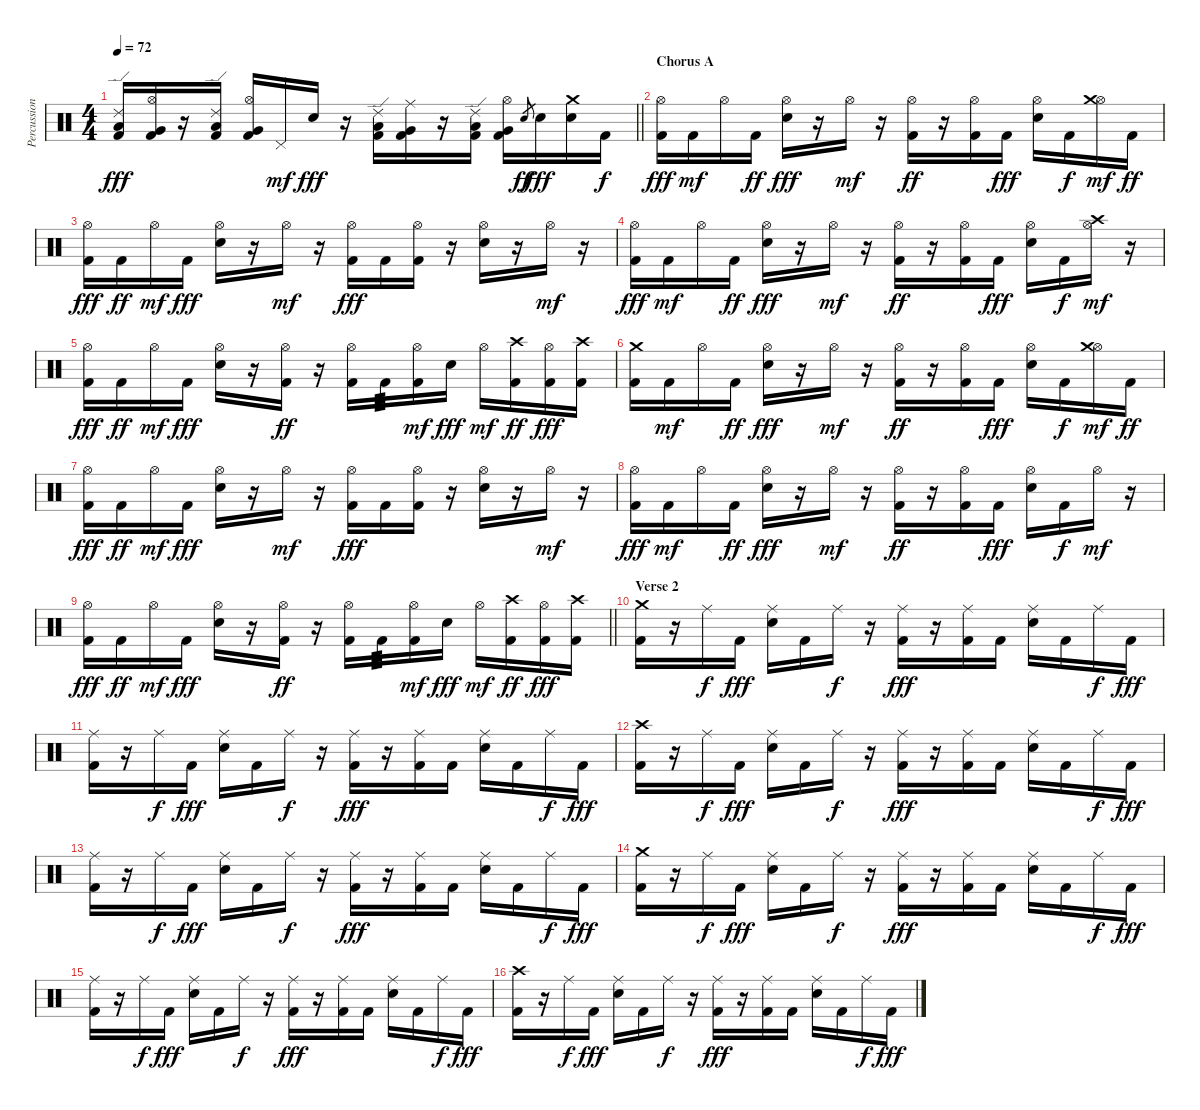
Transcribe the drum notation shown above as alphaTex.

\track ("Percussion" "Percussion") {instrument percussion}
\staff {score}
\articulation defaults
\ts (4 4)
\tempo 72
\clef neutral
\barLineRight lightlight
\ks c
("Ride (edge) 2" "Low Tom (hit)" "Kick (hit) 2").16{dy fff} ("Hi-Hat (open)" "Very Low Tom (hit)" "Kick (hit) 2").16 r.16 ("Ride (edge) 2" "Low Tom (hit)" "Kick (hit) 2").16 ("Hi-Hat (open)" "Very Low Tom (hit)" "Kick (hit) 2").16 "Pedal Hi-Hat (hit)".16{dy mf} "Electric Snare (hit)".16{dy fff} r.16 ("Ride (edge) 2" "Low Tom (hit)" "Kick (hit) 2").16 ("Ride (middle)" "Very Low Tom (hit)" "Kick (hit) 2").16 r.16 ("Ride (edge) 2" "Low Tom (hit)" "Kick (hit) 2").16 ("Hi-Hat (open)" "Very Low Tom (hit)" "Kick (hit) 2").16 "Electric Snare (hit)".8{gr dy ff} "Electric Snare (hit)".16{dy fff} ("Crash medium (hit)" "Electric Snare (hit)").16 "Kick (hit) 2".16{dy f} |
\section ("" "Chorus A")
("Hi-Hat (open)" "Kick (hit) 2").16{dy fff} "Kick (hit) 2".16{dy mf} "Hi-Hat (open)".16 "Kick (hit) 2".16{dy ff} ("Hi-Hat (open)" "Electric Snare (hit)").16{dy fff} r.16 "Hi-Hat (open)".16{dy mf} r.16 ("Hi-Hat (open)" "Kick (hit) 2").16{dy ff} r.16 ("Hi-Hat (open)" "Kick (hit) 2").16 "Kick (hit) 2".16{dy fff} ("Hi-Hat (open)" "Electric Snare (hit)").16 "Kick (hit) 2".16{dy f} ("Hi-Hat (open)" "Crash medium (hit)").16{dy mf} "Kick (hit) 2".16{dy ff} |
("Hi-Hat (open)" "Kick (hit) 2").16{dy fff} "Kick (hit) 2".16{dy ff} "Hi-Hat (open)".16{dy mf} "Kick (hit) 2".16{dy fff} ("Hi-Hat (open)" "Electric Snare (hit)").16 r.16 "Hi-Hat (open)".16{dy mf} r.16 ("Hi-Hat (open)" "Kick (hit) 2").16{dy fff} "Kick (hit) 2".16 ("Hi-Hat (open)" "Kick (hit) 2").16 r.16 ("Hi-Hat (open)" "Electric Snare (hit)").16 r.16 "Hi-Hat (open)".16{dy mf} r.16 |
("Hi-Hat (open)" "Kick (hit) 2").16{dy fff} "Kick (hit) 2".16{dy mf} "Hi-Hat (open)".16 "Kick (hit) 2".16{dy ff} ("Hi-Hat (open)" "Electric Snare (hit)").16{dy fff} r.16 "Hi-Hat (open)".16{dy mf} r.16 ("Hi-Hat (open)" "Kick (hit) 2").16{dy ff} r.16 ("Hi-Hat (open)" "Kick (hit) 2").16 "Kick (hit) 2".16{dy fff} ("Hi-Hat (open)" "Electric Snare (hit)").16 "Kick (hit) 2".16{dy f} ("Hi-Hat (open)" "Crash high (hit)").16{dy mf} r.16 |
("Hi-Hat (open)" "Kick (hit) 2").16{dy fff} "Kick (hit) 2".16{dy ff} "Hi-Hat (open)".16{dy mf} "Kick (hit) 2".16{dy fff} ("Hi-Hat (open)" "Electric Snare (hit)").16 r.16 ("Hi-Hat (open)" "Kick (hit) 2").16{dy ff} r.16 ("Hi-Hat (open)" "Kick (hit) 2").16 "Kick (hit) 2".16{tp 3} ("Hi-Hat (open)" "Kick (hit) 2").16{dy mf} "Electric Snare (hit)".16{dy fff} "Hi-Hat (open)".16{dy mf} ("Crash high (hit)" "Kick (hit) 2").16{dy ff} ("Hi-Hat (open)" "Kick (hit) 2").16{dy fff} ("Crash high (hit)" "Kick (hit) 2").16 |
("Crash medium (hit)" "Kick (hit) 2").16 "Kick (hit) 2".16{dy mf} "Hi-Hat (open)".16 "Kick (hit) 2".16{dy ff} ("Hi-Hat (open)" "Electric Snare (hit)").16{dy fff} r.16 "Hi-Hat (open)".16{dy mf} r.16 ("Hi-Hat (open)" "Kick (hit) 2").16{dy ff} r.16 ("Hi-Hat (open)" "Kick (hit) 2").16 "Kick (hit) 2".16{dy fff} ("Hi-Hat (open)" "Electric Snare (hit)").16 "Kick (hit) 2".16{dy f} ("Hi-Hat (open)" "Crash medium (hit)").16{dy mf} "Kick (hit) 2".16{dy ff} |
("Hi-Hat (open)" "Kick (hit) 2").16{dy fff} "Kick (hit) 2".16{dy ff} "Hi-Hat (open)".16{dy mf} "Kick (hit) 2".16{dy fff} ("Hi-Hat (open)" "Electric Snare (hit)").16 r.16 "Hi-Hat (open)".16{dy mf} r.16 ("Hi-Hat (open)" "Kick (hit) 2").16{dy fff} "Kick (hit) 2".16 ("Hi-Hat (open)" "Kick (hit) 2").16 r.16 ("Hi-Hat (open)" "Electric Snare (hit)").16 r.16 "Hi-Hat (open)".16{dy mf} r.16 |
("Hi-Hat (open)" "Kick (hit) 2").16{dy fff} "Kick (hit) 2".16{dy mf} "Hi-Hat (open)".16 "Kick (hit) 2".16{dy ff} ("Hi-Hat (open)" "Electric Snare (hit)").16{dy fff} r.16 "Hi-Hat (open)".16{dy mf} r.16 ("Hi-Hat (open)" "Kick (hit) 2").16{dy ff} r.16 ("Hi-Hat (open)" "Kick (hit) 2").16 "Kick (hit) 2".16{dy fff} ("Hi-Hat (open)" "Electric Snare (hit)").16 "Kick (hit) 2".16{dy f} "Hi-Hat (open)".16{dy mf} r.16 |
\barLineRight lightlight
("Hi-Hat (open)" "Kick (hit) 2").16{dy fff} "Kick (hit) 2".16{dy ff} "Hi-Hat (open)".16{dy mf} "Kick (hit) 2".16{dy fff} ("Hi-Hat (open)" "Electric Snare (hit)").16 r.16 ("Hi-Hat (open)" "Kick (hit) 2").16{dy ff} r.16 ("Hi-Hat (open)" "Kick (hit) 2").16 "Kick (hit) 2".16{tp 3} ("Hi-Hat (open)" "Kick (hit) 2").16{dy mf} "Electric Snare (hit)".16{dy fff} "Hi-Hat (open)".16{dy mf} ("Crash high (hit)" "Kick (hit) 2").16{dy ff} ("Hi-Hat (open)" "Kick (hit) 2").16{dy fff} ("Crash high (hit)" "Kick (hit) 2").16 |
\section ("" "Verse 2")
("Crash medium (hit)" "Kick (hit) 2").16 r.16 "Ride (middle)".16{dy f} "Kick (hit) 2".16{dy fff} ("Ride (middle)" "Electric Snare (hit)").16 "Kick (hit) 2".16 "Ride (middle)".16{dy f} r.16 ("Ride (middle)" "Kick (hit) 2").16{dy fff} r.16 ("Ride (middle)" "Kick (hit) 2").16 "Kick (hit) 2".16 ("Ride (middle)" "Electric Snare (hit)").16 "Kick (hit) 2".16 "Ride (middle)".16{dy f} "Kick (hit) 2".16{dy fff} |
("Ride (middle)" "Kick (hit) 2").16 r.16 "Ride (middle)".16{dy f} "Kick (hit) 2".16{dy fff} ("Ride (middle)" "Electric Snare (hit)").16 "Kick (hit) 2".16 "Ride (middle)".16{dy f} r.16 ("Ride (middle)" "Kick (hit) 2").16{dy fff} r.16 ("Ride (middle)" "Kick (hit) 2").16 "Kick (hit) 2".16 ("Ride (middle)" "Electric Snare (hit)").16 "Kick (hit) 2".16 "Ride (middle)".16{dy f} "Kick (hit) 2".16{dy fff} |
("Crash high (hit)" "Kick (hit) 2").16 r.16 "Ride (middle)".16{dy f} "Kick (hit) 2".16{dy fff} ("Ride (middle)" "Electric Snare (hit)").16 "Kick (hit) 2".16 "Ride (middle)".16{dy f} r.16 ("Ride (middle)" "Kick (hit) 2").16{dy fff} r.16 ("Ride (middle)" "Kick (hit) 2").16 "Kick (hit) 2".16 ("Ride (middle)" "Electric Snare (hit)").16 "Kick (hit) 2".16 "Ride (middle)".16{dy f} "Kick (hit) 2".16{dy fff} |
("Ride (middle)" "Kick (hit) 2").16 r.16 "Ride (middle)".16{dy f} "Kick (hit) 2".16{dy fff} ("Ride (middle)" "Electric Snare (hit)").16 "Kick (hit) 2".16 "Ride (middle)".16{dy f} r.16 ("Ride (middle)" "Kick (hit) 2").16{dy fff} r.16 ("Ride (middle)" "Kick (hit) 2").16 "Kick (hit) 2".16 ("Ride (middle)" "Electric Snare (hit)").16 "Kick (hit) 2".16 "Ride (middle)".16{dy f} "Kick (hit) 2".16{dy fff} |
("Crash medium (hit)" "Kick (hit) 2").16 r.16 "Ride (middle)".16{dy f} "Kick (hit) 2".16{dy fff} ("Ride (middle)" "Electric Snare (hit)").16 "Kick (hit) 2".16 "Ride (middle)".16{dy f} r.16 ("Ride (middle)" "Kick (hit) 2").16{dy fff} r.16 ("Ride (middle)" "Kick (hit) 2").16 "Kick (hit) 2".16 ("Ride (middle)" "Electric Snare (hit)").16 "Kick (hit) 2".16 "Ride (middle)".16{dy f} "Kick (hit) 2".16{dy fff} |
("Ride (middle)" "Kick (hit) 2").16 r.16 "Ride (middle)".16{dy f} "Kick (hit) 2".16{dy fff} ("Ride (middle)" "Electric Snare (hit)").16 "Kick (hit) 2".16 "Ride (middle)".16{dy f} r.16 ("Ride (middle)" "Kick (hit) 2").16{dy fff} r.16 ("Ride (middle)" "Kick (hit) 2").16 "Kick (hit) 2".16 ("Ride (middle)" "Electric Snare (hit)").16 "Kick (hit) 2".16 "Ride (middle)".16{dy f} "Kick (hit) 2".16{dy fff} |
("Crash high (hit)" "Kick (hit) 2").16 r.16 "Ride (middle)".16{dy f} "Kick (hit) 2".16{dy fff} ("Ride (middle)" "Electric Snare (hit)").16 "Kick (hit) 2".16 "Ride (middle)".16{dy f} r.16 ("Ride (middle)" "Kick (hit) 2").16{dy fff} r.16 ("Ride (middle)" "Kick (hit) 2").16 "Kick (hit) 2".16 ("Ride (middle)" "Electric Snare (hit)").16 "Kick (hit) 2".16 "Ride (middle)".16{dy f} "Kick (hit) 2".16{dy fff}
